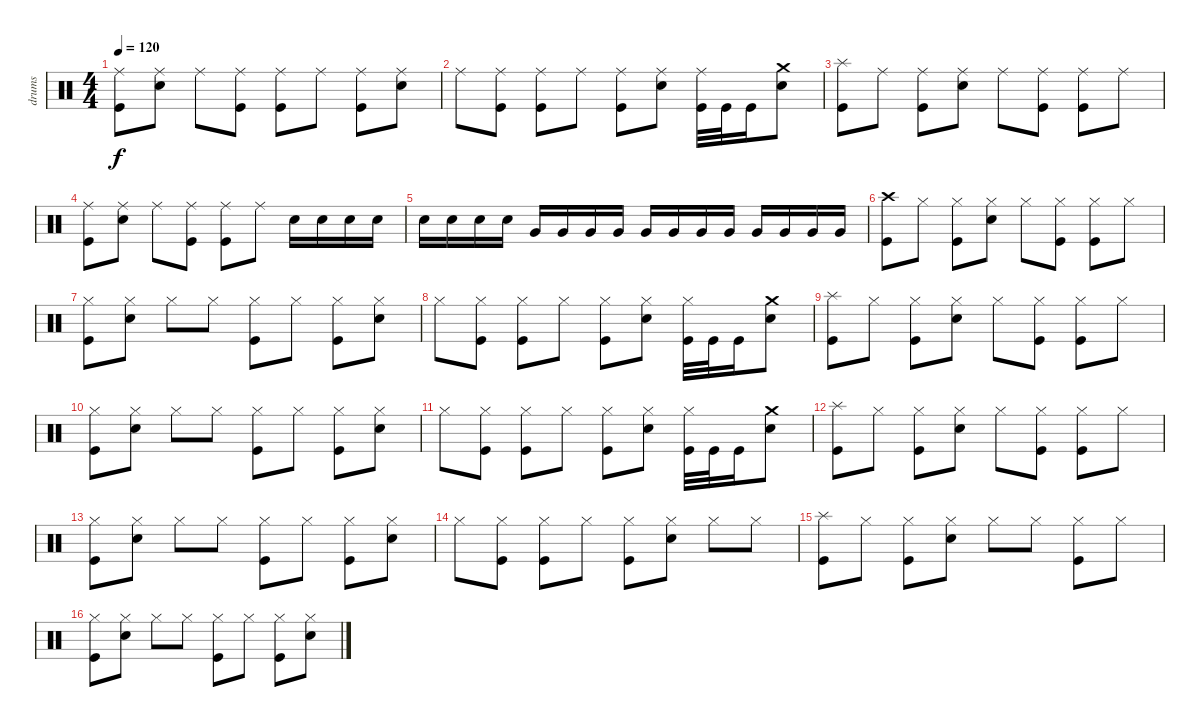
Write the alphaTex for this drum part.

\track ("drums" "drums") {instrument percussion}
\staff {score}
\articulation defaults
\ts (4 4)
\tempo 120
\clef neutral
\ks c
("Ride (middle)" "Kick (hit)").8{dy f} ("Ride (middle)" "Electric Snare (hit)").8 "Ride (middle)".8 ("Ride (middle)" "Kick (hit)").8 ("Ride (middle)" "Kick (hit)").8 "Ride (middle)".8 ("Ride (middle)" "Kick (hit)").8 ("Ride (middle)" "Electric Snare (hit)").8 |
"Ride (middle)".8 ("Ride (middle)" "Kick (hit)").8 ("Ride (middle)" "Kick (hit)").8 "Ride (middle)".8 ("Ride (middle)" "Kick (hit)").8 ("Ride (middle)" "Electric Snare (hit)").8 ("Ride (middle)" "Kick (hit)").32 "Kick (hit)".32 "Kick (hit)".16 ("Crash medium (hit)" "Electric Snare (hit)").8 |
("Splash (hit)" "Kick (hit)").8 "Ride (middle)".8 ("Ride (middle)" "Kick (hit)").8 ("Ride (middle)" "Electric Snare (hit)").8 "Ride (middle)".8 ("Ride (middle)" "Kick (hit)").8 ("Ride (middle)" "Kick (hit)").8 "Ride (middle)".8 |
("Ride (middle)" "Kick (hit)").8 ("Ride (middle)" "Electric Snare (hit)").8 "Ride (middle)".8 ("Ride (middle)" "Kick (hit)").8 ("Ride (middle)" "Kick (hit)").8 "Ride (middle)".8 "Electric Snare (hit)".16 "Electric Snare (hit)".16 "Electric Snare (hit)".16 "Electric Snare (hit)".16 |
"Electric Snare (hit)".16 "Electric Snare (hit)".16 "Electric Snare (hit)".16 "Electric Snare (hit)".16 "Very Low Tom (hit)".16 "Very Low Tom (hit)".16 "Very Low Tom (hit)".16 "Very Low Tom (hit)".16 "Very Low Tom (hit)".16 "Very Low Tom (hit)".16 "Very Low Tom (hit)".16 "Very Low Tom (hit)".16 "Very Low Tom (hit)".16 "Very Low Tom (hit)".16 "Very Low Tom (hit)".16 "Very Low Tom (hit)".16 |
("Crash high (hit)" "Kick (hit)").8 "Hi-Hat (closed)".8 ("Hi-Hat (closed)" "Kick (hit)").8 ("Hi-Hat (closed)" "Electric Snare (hit)").8 "Hi-Hat (closed)".8 ("Hi-Hat (closed)" "Kick (hit)").8 ("Hi-Hat (closed)" "Kick (hit)").8 "Hi-Hat (closed)".8 |
("Hi-Hat (closed)" "Kick (hit)").8 ("Hi-Hat (closed)" "Electric Snare (hit)").8 "Hi-Hat (closed)".8 "Hi-Hat (closed)".8 ("Hi-Hat (closed)" "Kick (hit)").8 "Hi-Hat (closed)".8 ("Hi-Hat (closed)" "Kick (hit)").8 ("Hi-Hat (closed)" "Electric Snare (hit)").8 |
"Hi-Hat (closed)".8 ("Hi-Hat (closed)" "Kick (hit)").8 ("Hi-Hat (closed)" "Kick (hit)").8 "Hi-Hat (closed)".8 ("Hi-Hat (closed)" "Kick (hit)").8 ("Hi-Hat (closed)" "Electric Snare (hit)").8 ("Hi-Hat (closed)" "Kick (hit)").32 "Kick (hit)".32 "Kick (hit)".16 ("Crash medium (hit)" "Electric Snare (hit)").8 |
("Splash (hit)" "Kick (hit)").8 "Hi-Hat (closed)".8 ("Hi-Hat (closed)" "Kick (hit)").8 ("Hi-Hat (closed)" "Electric Snare (hit)").8 "Hi-Hat (closed)".8 ("Hi-Hat (closed)" "Kick (hit)").8 ("Hi-Hat (closed)" "Kick (hit)").8 "Hi-Hat (closed)".8 |
("Hi-Hat (closed)" "Kick (hit)").8 ("Hi-Hat (closed)" "Electric Snare (hit)").8 "Hi-Hat (closed)".8 "Hi-Hat (closed)".8 ("Hi-Hat (closed)" "Kick (hit)").8 "Hi-Hat (closed)".8 ("Hi-Hat (closed)" "Kick (hit)").8 ("Hi-Hat (closed)" "Electric Snare (hit)").8 |
"Hi-Hat (closed)".8 ("Hi-Hat (closed)" "Kick (hit)").8 ("Hi-Hat (closed)" "Kick (hit)").8 "Hi-Hat (closed)".8 ("Hi-Hat (closed)" "Kick (hit)").8 ("Hi-Hat (closed)" "Electric Snare (hit)").8 ("Hi-Hat (closed)" "Kick (hit)").32 "Kick (hit)".32 "Kick (hit)".16 ("Crash medium (hit)" "Electric Snare (hit)").8 |
("Splash (hit)" "Kick (hit)").8 "Hi-Hat (closed)".8 ("Hi-Hat (closed)" "Kick (hit)").8 ("Hi-Hat (closed)" "Electric Snare (hit)").8 "Hi-Hat (closed)".8 ("Hi-Hat (closed)" "Kick (hit)").8 ("Hi-Hat (closed)" "Kick (hit)").8 "Hi-Hat (closed)".8 |
("Hi-Hat (closed)" "Kick (hit)").8 ("Hi-Hat (closed)" "Electric Snare (hit)").8 "Hi-Hat (closed)".8 "Hi-Hat (closed)".8 ("Hi-Hat (closed)" "Kick (hit)").8 "Hi-Hat (closed)".8 ("Hi-Hat (closed)" "Kick (hit)").8 ("Hi-Hat (closed)" "Electric Snare (hit)").8 |
"Hi-Hat (closed)".8 ("Hi-Hat (closed)" "Kick (hit)").8 ("Hi-Hat (closed)" "Kick (hit)").8 "Hi-Hat (closed)".8 ("Hi-Hat (closed)" "Kick (hit)").8 ("Hi-Hat (closed)" "Electric Snare (hit)").8 "Hi-Hat (closed)".8 "Hi-Hat (closed)".8 |
("Splash (hit)" "Kick (hit)").8 "Hi-Hat (closed)".8 ("Hi-Hat (closed)" "Kick (hit)").8 ("Hi-Hat (closed)" "Electric Snare (hit)").8 "Hi-Hat (closed)".8 "Hi-Hat (closed)".8 ("Hi-Hat (closed)" "Kick (hit)").8 "Hi-Hat (closed)".8 |
("Hi-Hat (closed)" "Kick (hit)").8 ("Hi-Hat (closed)" "Electric Snare (hit)").8 "Hi-Hat (closed)".8 "Hi-Hat (closed)".8 ("Hi-Hat (closed)" "Kick (hit)").8 "Hi-Hat (closed)".8 ("Hi-Hat (closed)" "Kick (hit)").8 ("Hi-Hat (closed)" "Electric Snare (hit)").8
